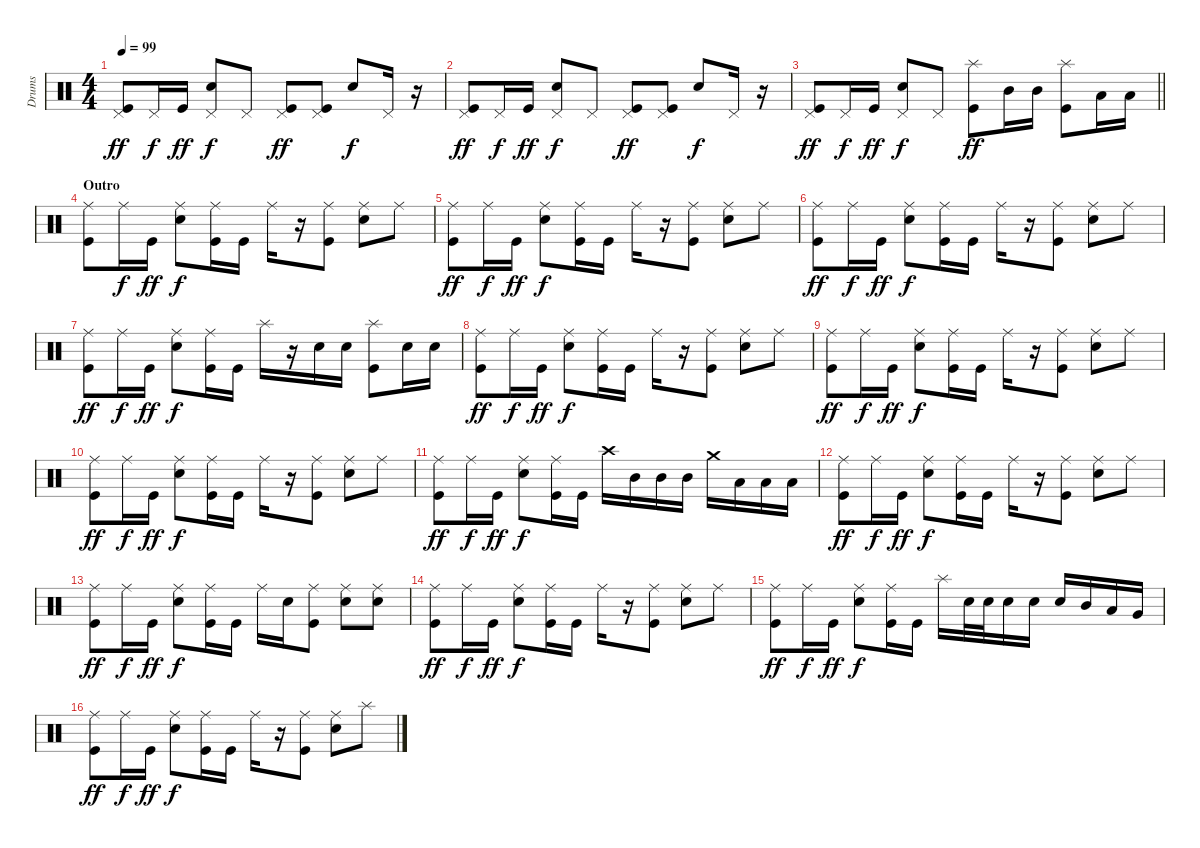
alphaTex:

\track ("Drums" "Drums") {instrument percussion}
\staff {score}
\articulation defaults
\ts (4 4)
\tempo 99
\clef neutral
\ks c
("Pedal Hi-Hat (hit)" "Kick (hit)").8{dy ff} "Pedal Hi-Hat (hit)".16{dy f} "Kick (hit)".16{dy ff} ("Pedal Hi-Hat (hit)" "Electric Snare (hit)").8{dy f} "Pedal Hi-Hat (hit)".8 ("Pedal Hi-Hat (hit)" "Kick (hit)").8{dy ff} ("Pedal Hi-Hat (hit)" "Kick (hit)").8 "Electric Snare (hit)".8{dy f} "Pedal Hi-Hat (hit)".16 r.16 |
("Pedal Hi-Hat (hit)" "Kick (hit)").8{dy ff} "Pedal Hi-Hat (hit)".16{dy f} "Kick (hit)".16{dy ff} ("Pedal Hi-Hat (hit)" "Electric Snare (hit)").8{dy f} "Pedal Hi-Hat (hit)".8 ("Pedal Hi-Hat (hit)" "Kick (hit)").8{dy ff} ("Pedal Hi-Hat (hit)" "Kick (hit)").8 "Electric Snare (hit)".8{dy f} "Pedal Hi-Hat (hit)".16 r.16 |
\barLineRight lightlight
("Pedal Hi-Hat (hit)" "Kick (hit)").8{dy ff} "Pedal Hi-Hat (hit)".16{dy f} "Kick (hit)".16{dy ff} ("Pedal Hi-Hat (hit)" "Electric Snare (hit)").8{dy f} "Pedal Hi-Hat (hit)".8 ("Splash (hit)" "Kick (hit)").8{dy ff} "Mid Tom (hit)".16 "Mid Tom (hit)".16 ("Splash (hit)" "Kick (hit)").8 "Low Tom (hit)".16 "Low Tom (hit)".16 |
\section ("" "Outro")
("Ride (middle)" "Kick (hit)").8 "Ride (middle)".16{dy f} "Kick (hit)".16{dy ff} ("Ride (middle)" "Electric Snare (hit)").8{dy f} ("Ride (middle)" "Kick (hit)").16 "Kick (hit)".16 "Ride (middle)".16 r.16 ("Ride (middle)" "Kick (hit)").8 ("Ride (middle)" "Electric Snare (hit)").8 "Ride (middle)".8 |
("Ride (middle)" "Kick (hit)").8{dy ff} "Ride (middle)".16{dy f} "Kick (hit)".16{dy ff} ("Ride (middle)" "Electric Snare (hit)").8{dy f} ("Ride (middle)" "Kick (hit)").16 "Kick (hit)".16 "Ride (middle)".16 r.16 ("Ride (middle)" "Kick (hit)").8 ("Ride (middle)" "Electric Snare (hit)").8 "Ride (middle)".8 |
("Ride (middle)" "Kick (hit)").8{dy ff} "Ride (middle)".16{dy f} "Kick (hit)".16{dy ff} ("Ride (middle)" "Electric Snare (hit)").8{dy f} ("Ride (middle)" "Kick (hit)").16 "Kick (hit)".16 "Ride (middle)".16 r.16 ("Ride (middle)" "Kick (hit)").8 ("Ride (middle)" "Electric Snare (hit)").8 "Ride (middle)".8 |
("Ride (middle)" "Kick (hit)").8{dy ff} "Ride (middle)".16{dy f} "Kick (hit)".16{dy ff} ("Ride (middle)" "Electric Snare (hit)").8{dy f} ("Ride (middle)" "Kick (hit)").16 "Kick (hit)".16 "Splash (hit)".16 r.16 "Electric Snare (hit)".16 "Electric Snare (hit)".16 ("Splash (hit)" "Kick (hit)").8 "Electric Snare (hit)".16 "Electric Snare (hit)".16 |
("Ride (middle)" "Kick (hit)").8{dy ff} "Ride (middle)".16{dy f} "Kick (hit)".16{dy ff} ("Ride (middle)" "Electric Snare (hit)").8{dy f} ("Ride (middle)" "Kick (hit)").16 "Kick (hit)".16 "Ride (middle)".16 r.16 ("Ride (middle)" "Kick (hit)").8 ("Ride (middle)" "Electric Snare (hit)").8 "Ride (middle)".8 |
("Ride (middle)" "Kick (hit)").8{dy ff} "Ride (middle)".16{dy f} "Kick (hit)".16{dy ff} ("Ride (middle)" "Electric Snare (hit)").8{dy f} ("Ride (middle)" "Kick (hit)").16 "Kick (hit)".16 "Ride (middle)".16 r.16 ("Ride (middle)" "Kick (hit)").8 ("Ride (middle)" "Electric Snare (hit)").8 "Ride (middle)".8 |
("Ride (middle)" "Kick (hit)").8{dy ff} "Ride (middle)".16{dy f} "Kick (hit)".16{dy ff} ("Ride (middle)" "Electric Snare (hit)").8{dy f} ("Ride (middle)" "Kick (hit)").16 "Kick (hit)".16 "Ride (middle)".16 r.16 ("Ride (middle)" "Kick (hit)").8 ("Ride (middle)" "Electric Snare (hit)").8 "Ride (middle)".8 |
("Ride (middle)" "Kick (hit)").8{dy ff} "Ride (middle)".16{dy f} "Kick (hit)".16{dy ff} ("Ride (middle)" "Electric Snare (hit)").8{dy f} ("Ride (middle)" "Kick (hit)").16 "Kick (hit)".16 "Crash high (hit)".16 "Mid Tom (hit)".16 "Mid Tom (hit)".16 "Mid Tom (hit)".16 "Crash medium (hit)".16 "Low Tom (hit)".16 "Low Tom (hit)".16 "Low Tom (hit)".16 |
("Ride (middle)" "Kick (hit)").8{dy ff} "Ride (middle)".16{dy f} "Kick (hit)".16{dy ff} ("Ride (middle)" "Electric Snare (hit)").8{dy f} ("Ride (middle)" "Kick (hit)").16 "Kick (hit)".16 "Ride (middle)".16 r.16 ("Ride (middle)" "Kick (hit)").8 ("Ride (middle)" "Electric Snare (hit)").8 "Ride (middle)".8 |
("Ride (middle)" "Kick (hit)").8{dy ff} "Ride (middle)".16{dy f} "Kick (hit)".16{dy ff} ("Ride (middle)" "Electric Snare (hit)").8{dy f} ("Ride (middle)" "Kick (hit)").16 "Kick (hit)".16 "Ride (middle)".16 "Electric Snare (hit)".16 ("Ride (middle)" "Kick (hit)").8 ("Ride (middle)" "Electric Snare (hit)").8 ("Ride (middle)" "Electric Snare (hit)").8 |
("Ride (middle)" "Kick (hit)").8{dy ff} "Ride (middle)".16{dy f} "Kick (hit)".16{dy ff} ("Ride (middle)" "Electric Snare (hit)").8{dy f} ("Ride (middle)" "Kick (hit)").16 "Kick (hit)".16 "Ride (middle)".16 r.16 ("Ride (middle)" "Kick (hit)").8 ("Ride (middle)" "Electric Snare (hit)").8 "Ride (middle)".8 |
("Ride (middle)" "Kick (hit)").8{dy ff} "Ride (middle)".16{dy f} "Kick (hit)".16{dy ff} ("Ride (middle)" "Electric Snare (hit)").8{dy f} ("Ride (middle)" "Kick (hit)").16 "Kick (hit)".16 "Splash (hit)".16 "Electric Snare (hit)".32 "Electric Snare (hit)".32 "Electric Snare (hit)".16 "Electric Snare (hit)".16 "Electric Snare (hit)".16 "Mid Tom (hit)".16 "Low Tom (hit)".16 "Very Low Tom (hit)".16 |
("Ride (middle)" "Kick (hit)").8{dy ff} "Ride (middle)".16{dy f} "Kick (hit)".16{dy ff} ("Ride (middle)" "Electric Snare (hit)").8{dy f} ("Ride (middle)" "Kick (hit)").16 "Kick (hit)".16 "Ride (middle)".16 r.16 ("Ride (middle)" "Kick (hit)").8 ("Ride (middle)" "Electric Snare (hit)").8 "Splash (hit)".8
